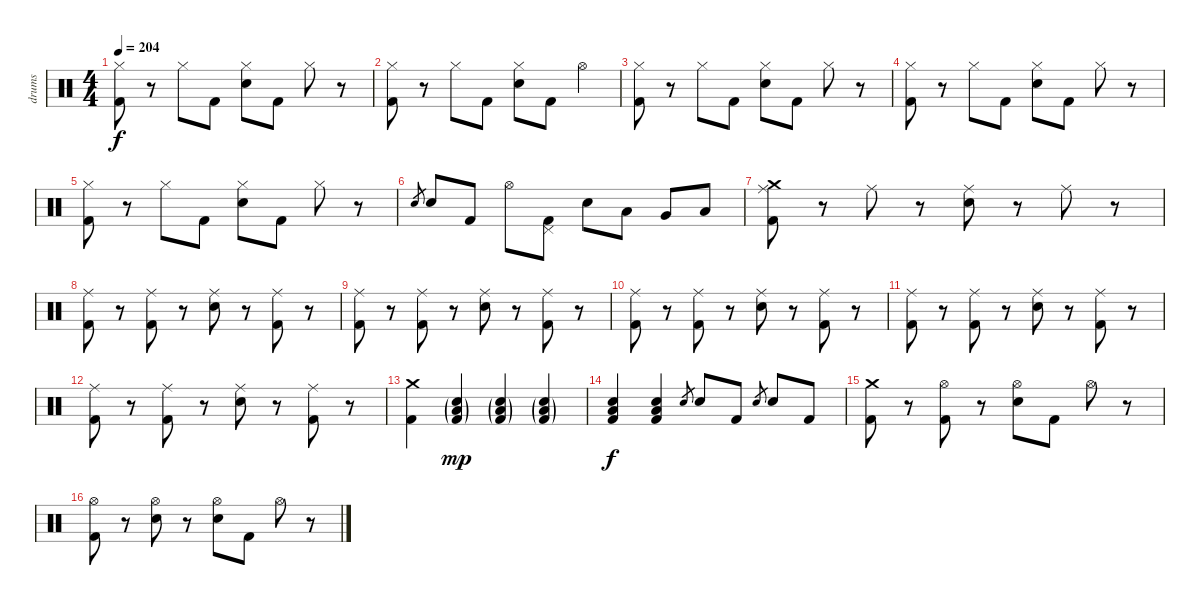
\track ("drums" "drums") {instrument percussion}
\staff {score}
\articulation defaults
\ts (4 4)
\tempo 204
\clef neutral
\ks c
("Hi-Hat (closed)" "Kick (hit) 2").8{dy f} r.8 "Hi-Hat (closed)".8 "Kick (hit) 2".8 ("Hi-Hat (closed)" "Snare (hit) 2").8 "Kick (hit) 2".8 "Hi-Hat (closed)".8 r.8 |
("Hi-Hat (closed)" "Kick (hit) 2").8 r.8 "Hi-Hat (closed)".8 "Kick (hit) 2".8 ("Hi-Hat (closed)" "Snare (hit) 2").8 "Kick (hit) 2".8 "Hi-Hat (open)".4 |
("Hi-Hat (closed)" "Kick (hit) 2").8 r.8 "Hi-Hat (closed)".8 "Kick (hit) 2".8 ("Hi-Hat (closed)" "Snare (hit) 2").8 "Kick (hit) 2".8 "Hi-Hat (closed)".8 r.8 |
("Hi-Hat (closed)" "Kick (hit) 2").8 r.8 "Hi-Hat (closed)".8 "Kick (hit) 2".8 ("Hi-Hat (closed)" "Snare (hit) 2").8 "Kick (hit) 2".8 "Hi-Hat (closed)".8 r.8 |
("Hi-Hat (closed)" "Kick (hit) 2").8 r.8 "Hi-Hat (closed)".8 "Kick (hit) 2".8 ("Hi-Hat (closed)" "Snare (hit) 2").8 "Kick (hit) 2".8 "Hi-Hat (closed)".8 r.8 |
"Snare (hit) 2".8{gr} "Snare (hit) 2".8 "Kick (hit) 2".8 "Hi-Hat (open)".8 ("Pedal Hi-Hat (hit)" "Kick (hit) 2").8 "Snare (hit) 2".8 "Low Tom (hit)".8 "Very Low Tom (hit)".8 "Low Floor Tom (hit)".8 |
("Crash medium (hit)" "Ride (middle)" "Kick (hit) 2").8 r.8 "Ride (middle)".8 r.8 ("Ride (middle)" "Snare (hit) 2").8 r.8 "Ride (middle)".8 r.8 |
("Ride (middle)" "Kick (hit) 2").8 r.8 ("Ride (middle)" "Kick (hit) 2").8 r.8 ("Ride (middle)" "Snare (hit) 2").8 r.8 ("Ride (middle)" "Kick (hit) 2").8 r.8 |
("Ride (middle)" "Kick (hit) 2").8 r.8 ("Ride (middle)" "Kick (hit) 2").8 r.8 ("Ride (middle)" "Snare (hit) 2").8 r.8 ("Ride (middle)" "Kick (hit) 2").8 r.8 |
("Ride (middle)" "Kick (hit) 2").8 r.8 ("Ride (middle)" "Kick (hit) 2").8 r.8 ("Ride (middle)" "Snare (hit) 2").8 r.8 ("Ride (middle)" "Kick (hit) 2").8 r.8 |
("Ride (middle)" "Kick (hit) 2").8 r.8 ("Ride (middle)" "Kick (hit) 2").8 r.8 ("Ride (middle)" "Snare (hit) 2").8 r.8 ("Ride (middle)" "Kick (hit) 2").8 r.8 |
("Ride (middle)" "Kick (hit) 2").8 r.8 ("Ride (middle)" "Kick (hit) 2").8 r.8 ("Ride (middle)" "Snare (hit) 2").8 r.8 ("Ride (middle)" "Kick (hit) 2").8 r.8 |
("Crash medium (hit)" "Kick (hit) 2").4 ("Snare (hit) 2"{g} "Low Floor Tom (hit)"{g} "Kick (hit) 2"{g}).4{dy mp} ("Snare (hit) 2"{g} "Low Floor Tom (hit)"{g} "Kick (hit) 2"{g}).4 ("Snare (hit) 2"{g} "Low Floor Tom (hit)"{g} "Kick (hit) 2"{g}).4 |
("Snare (hit) 2" "Low Floor Tom (hit)" "Kick (hit) 2").4{dy f} ("Snare (hit) 2" "Low Floor Tom (hit)" "Kick (hit) 2").4 "Snare (hit) 2".8{gr} "Snare (hit) 2".8 "Kick (hit) 2".8 "Snare (hit) 2".8{gr} "Snare (hit) 2".8 "Kick (hit) 2".8 |
("Crash medium (hit)" "Kick (hit) 2").8 r.8 ("Hi-Hat (open)" "Kick (hit) 2").8 r.8 ("Hi-Hat (open)" "Snare (hit) 2").8 "Kick (hit) 2".8 "Hi-Hat (open)".8 r.8 |
("Hi-Hat (open)" "Kick (hit) 2").8 r.8 ("Hi-Hat (open)" "Snare (hit) 2").8 r.8 ("Hi-Hat (open)" "Snare (hit) 2").8 "Kick (hit) 2".8 "Hi-Hat (open)".8 r.8
